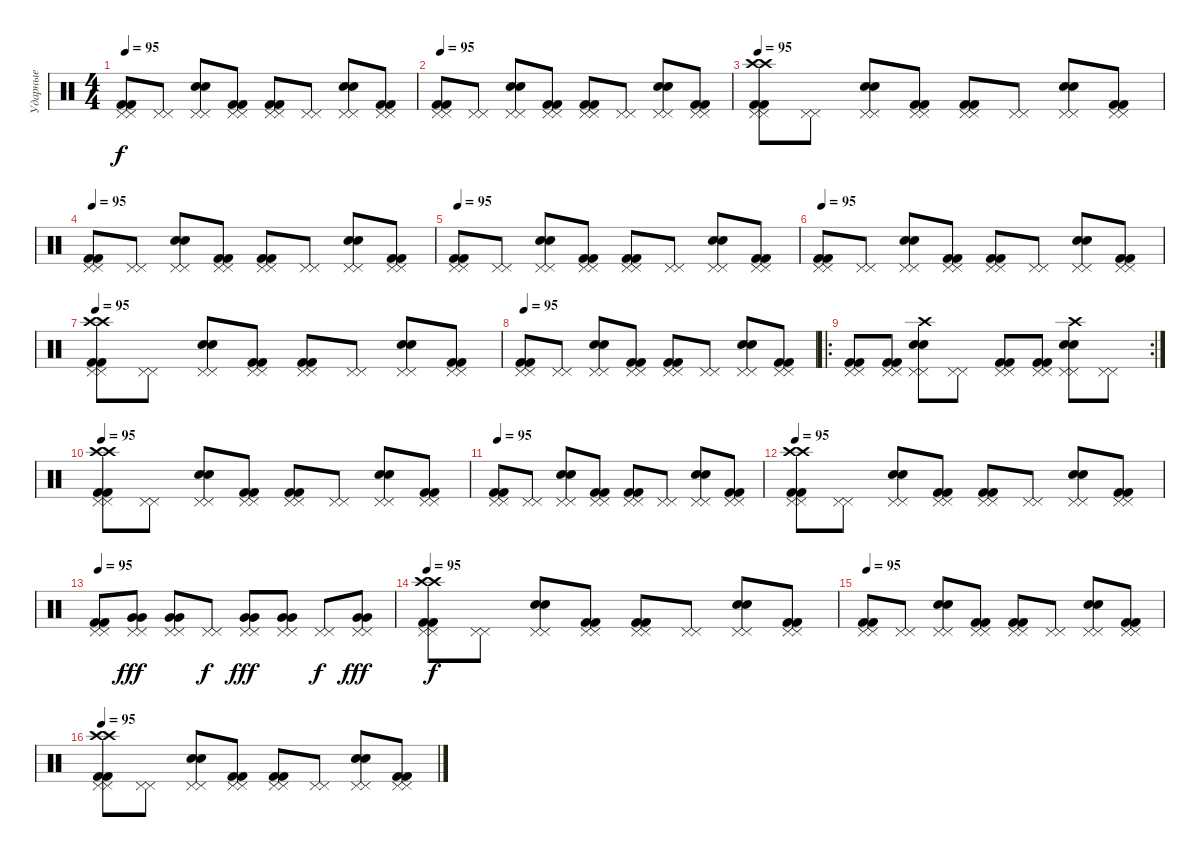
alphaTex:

\track ("Ударные" "Ударные") {instrument percussion}
\staff {score}
\articulation defaults
\ts (4 4)
\tempo 95
\clef neutral
\ks c
("Kick (hit) 2" "Kick (hit) 2" "Pedal Hi-Hat (hit)" "Pedal Hi-Hat (hit)").8{dy f} ("Pedal Hi-Hat (hit)" "Pedal Hi-Hat (hit)").8 ("Pedal Hi-Hat (hit)" "Pedal Hi-Hat (hit)" "Electric Snare (hit)" "Electric Snare (hit)").8 ("Pedal Hi-Hat (hit)" "Pedal Hi-Hat (hit)" "Kick (hit) 2" "Kick (hit) 2").8 ("Pedal Hi-Hat (hit)" "Pedal Hi-Hat (hit)" "Kick (hit) 2" "Kick (hit) 2").8 ("Pedal Hi-Hat (hit)" "Pedal Hi-Hat (hit)").8 ("Pedal Hi-Hat (hit)" "Pedal Hi-Hat (hit)" "Electric Snare (hit)" "Electric Snare (hit)").8 ("Pedal Hi-Hat (hit)" "Pedal Hi-Hat (hit)" "Kick (hit) 2" "Kick (hit) 2").8 |
\tempo 95
("Kick (hit) 2" "Kick (hit) 2" "Pedal Hi-Hat (hit)" "Pedal Hi-Hat (hit)").8 ("Pedal Hi-Hat (hit)" "Pedal Hi-Hat (hit)").8 ("Pedal Hi-Hat (hit)" "Pedal Hi-Hat (hit)" "Electric Snare (hit)" "Electric Snare (hit)").8 ("Pedal Hi-Hat (hit)" "Pedal Hi-Hat (hit)" "Kick (hit) 2" "Kick (hit) 2").8 ("Pedal Hi-Hat (hit)" "Pedal Hi-Hat (hit)" "Kick (hit) 2" "Kick (hit) 2").8 ("Pedal Hi-Hat (hit)" "Pedal Hi-Hat (hit)").8 ("Pedal Hi-Hat (hit)" "Pedal Hi-Hat (hit)" "Electric Snare (hit)" "Electric Snare (hit)").8 ("Pedal Hi-Hat (hit)" "Pedal Hi-Hat (hit)" "Kick (hit) 2" "Kick (hit) 2").8 |
\tempo 95
("Kick (hit) 2" "Kick (hit) 2" "Pedal Hi-Hat (hit)" "Pedal Hi-Hat (hit)" "Crash high (hit)" "Crash high (hit)").8 ("Pedal Hi-Hat (hit)" "Pedal Hi-Hat (hit)").8 ("Pedal Hi-Hat (hit)" "Pedal Hi-Hat (hit)" "Electric Snare (hit)" "Electric Snare (hit)").8 ("Pedal Hi-Hat (hit)" "Pedal Hi-Hat (hit)" "Kick (hit) 2" "Kick (hit) 2").8 ("Pedal Hi-Hat (hit)" "Pedal Hi-Hat (hit)" "Kick (hit) 2" "Kick (hit) 2").8 ("Pedal Hi-Hat (hit)" "Pedal Hi-Hat (hit)").8 ("Pedal Hi-Hat (hit)" "Pedal Hi-Hat (hit)" "Electric Snare (hit)" "Electric Snare (hit)").8 ("Pedal Hi-Hat (hit)" "Pedal Hi-Hat (hit)" "Kick (hit) 2" "Kick (hit) 2").8 |
\tempo 95
("Kick (hit) 2" "Kick (hit) 2" "Pedal Hi-Hat (hit)" "Pedal Hi-Hat (hit)").8 ("Pedal Hi-Hat (hit)" "Pedal Hi-Hat (hit)").8 ("Pedal Hi-Hat (hit)" "Pedal Hi-Hat (hit)" "Electric Snare (hit)" "Electric Snare (hit)").8 ("Pedal Hi-Hat (hit)" "Pedal Hi-Hat (hit)" "Kick (hit) 2" "Kick (hit) 2").8 ("Pedal Hi-Hat (hit)" "Pedal Hi-Hat (hit)" "Kick (hit) 2" "Kick (hit) 2").8 ("Pedal Hi-Hat (hit)" "Pedal Hi-Hat (hit)").8 ("Pedal Hi-Hat (hit)" "Pedal Hi-Hat (hit)" "Electric Snare (hit)" "Electric Snare (hit)").8 ("Pedal Hi-Hat (hit)" "Pedal Hi-Hat (hit)" "Kick (hit) 2" "Kick (hit) 2").8 |
\tempo 95
("Kick (hit) 2" "Kick (hit) 2" "Pedal Hi-Hat (hit)" "Pedal Hi-Hat (hit)").8 ("Pedal Hi-Hat (hit)" "Pedal Hi-Hat (hit)").8 ("Pedal Hi-Hat (hit)" "Pedal Hi-Hat (hit)" "Electric Snare (hit)" "Electric Snare (hit)").8 ("Pedal Hi-Hat (hit)" "Pedal Hi-Hat (hit)" "Kick (hit) 2" "Kick (hit) 2").8 ("Pedal Hi-Hat (hit)" "Pedal Hi-Hat (hit)" "Kick (hit) 2" "Kick (hit) 2").8 ("Pedal Hi-Hat (hit)" "Pedal Hi-Hat (hit)").8 ("Pedal Hi-Hat (hit)" "Pedal Hi-Hat (hit)" "Electric Snare (hit)" "Electric Snare (hit)").8 ("Pedal Hi-Hat (hit)" "Pedal Hi-Hat (hit)" "Kick (hit) 2" "Kick (hit) 2").8 |
\tempo 95
("Kick (hit) 2" "Kick (hit) 2" "Pedal Hi-Hat (hit)" "Pedal Hi-Hat (hit)").8 ("Pedal Hi-Hat (hit)" "Pedal Hi-Hat (hit)").8 ("Pedal Hi-Hat (hit)" "Pedal Hi-Hat (hit)" "Electric Snare (hit)" "Electric Snare (hit)").8 ("Pedal Hi-Hat (hit)" "Pedal Hi-Hat (hit)" "Kick (hit) 2" "Kick (hit) 2").8 ("Pedal Hi-Hat (hit)" "Pedal Hi-Hat (hit)" "Kick (hit) 2" "Kick (hit) 2").8 ("Pedal Hi-Hat (hit)" "Pedal Hi-Hat (hit)").8 ("Pedal Hi-Hat (hit)" "Pedal Hi-Hat (hit)" "Electric Snare (hit)" "Electric Snare (hit)").8 ("Pedal Hi-Hat (hit)" "Pedal Hi-Hat (hit)" "Kick (hit) 2" "Kick (hit) 2").8 |
\tempo 95
("Kick (hit) 2" "Kick (hit) 2" "Pedal Hi-Hat (hit)" "Pedal Hi-Hat (hit)" "Crash high (hit)" "Crash high (hit)").8 ("Pedal Hi-Hat (hit)" "Pedal Hi-Hat (hit)").8 ("Pedal Hi-Hat (hit)" "Pedal Hi-Hat (hit)" "Electric Snare (hit)" "Electric Snare (hit)").8 ("Pedal Hi-Hat (hit)" "Pedal Hi-Hat (hit)" "Kick (hit) 2" "Kick (hit) 2").8 ("Pedal Hi-Hat (hit)" "Pedal Hi-Hat (hit)" "Kick (hit) 2" "Kick (hit) 2").8 ("Pedal Hi-Hat (hit)" "Pedal Hi-Hat (hit)").8 ("Pedal Hi-Hat (hit)" "Pedal Hi-Hat (hit)" "Electric Snare (hit)" "Electric Snare (hit)").8 ("Pedal Hi-Hat (hit)" "Pedal Hi-Hat (hit)" "Kick (hit) 2" "Kick (hit) 2").8 |
\tempo 95
("Kick (hit) 2" "Kick (hit) 2" "Pedal Hi-Hat (hit)" "Pedal Hi-Hat (hit)").8 ("Pedal Hi-Hat (hit)" "Pedal Hi-Hat (hit)").8 ("Pedal Hi-Hat (hit)" "Pedal Hi-Hat (hit)" "Electric Snare (hit)" "Electric Snare (hit)").8 ("Pedal Hi-Hat (hit)" "Pedal Hi-Hat (hit)" "Kick (hit) 2" "Kick (hit) 2").8 ("Pedal Hi-Hat (hit)" "Pedal Hi-Hat (hit)" "Kick (hit) 2" "Kick (hit) 2").8 ("Pedal Hi-Hat (hit)" "Pedal Hi-Hat (hit)").8 ("Pedal Hi-Hat (hit)" "Pedal Hi-Hat (hit)" "Electric Snare (hit)" "Electric Snare (hit)").8 ("Pedal Hi-Hat (hit)" "Pedal Hi-Hat (hit)" "Kick (hit) 2" "Kick (hit) 2").8 |
\ro
\rc 2
("Kick (hit) 2" "Kick (hit) 2" "Pedal Hi-Hat (hit)" "Pedal Hi-Hat (hit)").8 ("Kick (hit) 2" "Kick (hit) 2" "Pedal Hi-Hat (hit)" "Pedal Hi-Hat (hit)").8 ("Electric Snare (hit)" "Electric Snare (hit)" "Crash high (hit)" "Pedal Hi-Hat (hit)" "Pedal Hi-Hat (hit)").8 ("Pedal Hi-Hat (hit)" "Pedal Hi-Hat (hit)").8 ("Kick (hit) 2" "Kick (hit) 2" "Pedal Hi-Hat (hit)" "Pedal Hi-Hat (hit)").8 ("Kick (hit) 2" "Kick (hit) 2" "Pedal Hi-Hat (hit)" "Pedal Hi-Hat (hit)").8 ("Electric Snare (hit)" "Electric Snare (hit)" "Crash high (hit)" "Pedal Hi-Hat (hit)" "Pedal Hi-Hat (hit)").8 ("Pedal Hi-Hat (hit)" "Pedal Hi-Hat (hit)").8 |
\tempo 95
("Kick (hit) 2" "Kick (hit) 2" "Pedal Hi-Hat (hit)" "Pedal Hi-Hat (hit)" "Crash high (hit)" "Crash high (hit)").8 ("Pedal Hi-Hat (hit)" "Pedal Hi-Hat (hit)").8 ("Pedal Hi-Hat (hit)" "Pedal Hi-Hat (hit)" "Electric Snare (hit)" "Electric Snare (hit)").8 ("Pedal Hi-Hat (hit)" "Pedal Hi-Hat (hit)" "Kick (hit) 2" "Kick (hit) 2").8 ("Pedal Hi-Hat (hit)" "Pedal Hi-Hat (hit)" "Kick (hit) 2" "Kick (hit) 2").8 ("Pedal Hi-Hat (hit)" "Pedal Hi-Hat (hit)").8 ("Pedal Hi-Hat (hit)" "Pedal Hi-Hat (hit)" "Electric Snare (hit)" "Electric Snare (hit)").8 ("Pedal Hi-Hat (hit)" "Pedal Hi-Hat (hit)" "Kick (hit) 2" "Kick (hit) 2").8 |
\tempo 95
("Kick (hit) 2" "Kick (hit) 2" "Pedal Hi-Hat (hit)" "Pedal Hi-Hat (hit)").8 ("Pedal Hi-Hat (hit)" "Pedal Hi-Hat (hit)").8 ("Pedal Hi-Hat (hit)" "Pedal Hi-Hat (hit)" "Electric Snare (hit)" "Electric Snare (hit)").8 ("Pedal Hi-Hat (hit)" "Pedal Hi-Hat (hit)" "Kick (hit) 2" "Kick (hit) 2").8 ("Pedal Hi-Hat (hit)" "Pedal Hi-Hat (hit)" "Kick (hit) 2" "Kick (hit) 2").8 ("Pedal Hi-Hat (hit)" "Pedal Hi-Hat (hit)").8 ("Pedal Hi-Hat (hit)" "Pedal Hi-Hat (hit)" "Electric Snare (hit)" "Electric Snare (hit)").8 ("Pedal Hi-Hat (hit)" "Pedal Hi-Hat (hit)" "Kick (hit) 2" "Kick (hit) 2").8 |
\tempo 95
("Kick (hit) 2" "Kick (hit) 2" "Pedal Hi-Hat (hit)" "Pedal Hi-Hat (hit)" "Crash high (hit)" "Crash high (hit)").8 ("Pedal Hi-Hat (hit)" "Pedal Hi-Hat (hit)").8 ("Pedal Hi-Hat (hit)" "Pedal Hi-Hat (hit)" "Electric Snare (hit)" "Electric Snare (hit)").8 ("Pedal Hi-Hat (hit)" "Pedal Hi-Hat (hit)" "Kick (hit) 2" "Kick (hit) 2").8 ("Pedal Hi-Hat (hit)" "Pedal Hi-Hat (hit)" "Kick (hit) 2" "Kick (hit) 2").8 ("Pedal Hi-Hat (hit)" "Pedal Hi-Hat (hit)").8 ("Pedal Hi-Hat (hit)" "Pedal Hi-Hat (hit)" "Electric Snare (hit)" "Electric Snare (hit)").8 ("Pedal Hi-Hat (hit)" "Pedal Hi-Hat (hit)" "Kick (hit) 2" "Kick (hit) 2").8 |
\tempo 95
("Kick (hit) 2" "Kick (hit) 2" "Pedal Hi-Hat (hit)" "Pedal Hi-Hat (hit)").8 ("Pedal Hi-Hat (hit)" "Pedal Hi-Hat (hit)" "Very Low Tom (hit)" "Very Low Tom (hit)").8{dy fff} ("Pedal Hi-Hat (hit)" "Pedal Hi-Hat (hit)" "Very Low Tom (hit)" "Very Low Tom (hit)").8 ("Pedal Hi-Hat (hit)" "Pedal Hi-Hat (hit)").8{dy f} ("Pedal Hi-Hat (hit)" "Pedal Hi-Hat (hit)" "Very Low Tom (hit)" "Very Low Tom (hit)").8{dy fff} ("Pedal Hi-Hat (hit)" "Pedal Hi-Hat (hit)" "Very Low Tom (hit)" "Very Low Tom (hit)").8 ("Pedal Hi-Hat (hit)" "Pedal Hi-Hat (hit)").8{dy f} ("Pedal Hi-Hat (hit)" "Pedal Hi-Hat (hit)" "Very Low Tom (hit)" "Very Low Tom (hit)").8{dy fff} |
\tempo 95
("Kick (hit) 2" "Kick (hit) 2" "Pedal Hi-Hat (hit)" "Pedal Hi-Hat (hit)" "Crash high (hit)" "Crash high (hit)").8{dy f} ("Pedal Hi-Hat (hit)" "Pedal Hi-Hat (hit)").8 ("Pedal Hi-Hat (hit)" "Pedal Hi-Hat (hit)" "Electric Snare (hit)" "Electric Snare (hit)").8 ("Pedal Hi-Hat (hit)" "Pedal Hi-Hat (hit)" "Kick (hit) 2" "Kick (hit) 2").8 ("Pedal Hi-Hat (hit)" "Pedal Hi-Hat (hit)" "Kick (hit) 2" "Kick (hit) 2").8 ("Pedal Hi-Hat (hit)" "Pedal Hi-Hat (hit)").8 ("Pedal Hi-Hat (hit)" "Pedal Hi-Hat (hit)" "Electric Snare (hit)" "Electric Snare (hit)").8 ("Pedal Hi-Hat (hit)" "Pedal Hi-Hat (hit)" "Kick (hit) 2" "Kick (hit) 2").8 |
\tempo 95
("Kick (hit) 2" "Kick (hit) 2" "Pedal Hi-Hat (hit)" "Pedal Hi-Hat (hit)").8 ("Pedal Hi-Hat (hit)" "Pedal Hi-Hat (hit)").8 ("Pedal Hi-Hat (hit)" "Pedal Hi-Hat (hit)" "Electric Snare (hit)" "Electric Snare (hit)").8 ("Pedal Hi-Hat (hit)" "Pedal Hi-Hat (hit)" "Kick (hit) 2" "Kick (hit) 2").8 ("Pedal Hi-Hat (hit)" "Pedal Hi-Hat (hit)" "Kick (hit) 2" "Kick (hit) 2").8 ("Pedal Hi-Hat (hit)" "Pedal Hi-Hat (hit)").8 ("Pedal Hi-Hat (hit)" "Pedal Hi-Hat (hit)" "Electric Snare (hit)" "Electric Snare (hit)").8 ("Pedal Hi-Hat (hit)" "Pedal Hi-Hat (hit)" "Kick (hit) 2" "Kick (hit) 2").8 |
\tempo 95
("Kick (hit) 2" "Kick (hit) 2" "Pedal Hi-Hat (hit)" "Pedal Hi-Hat (hit)" "Crash high (hit)" "Crash high (hit)").8 ("Pedal Hi-Hat (hit)" "Pedal Hi-Hat (hit)").8 ("Pedal Hi-Hat (hit)" "Pedal Hi-Hat (hit)" "Electric Snare (hit)" "Electric Snare (hit)").8 ("Pedal Hi-Hat (hit)" "Pedal Hi-Hat (hit)" "Kick (hit) 2" "Kick (hit) 2").8 ("Pedal Hi-Hat (hit)" "Pedal Hi-Hat (hit)" "Kick (hit) 2" "Kick (hit) 2").8 ("Pedal Hi-Hat (hit)" "Pedal Hi-Hat (hit)").8 ("Pedal Hi-Hat (hit)" "Pedal Hi-Hat (hit)" "Electric Snare (hit)" "Electric Snare (hit)").8 ("Pedal Hi-Hat (hit)" "Pedal Hi-Hat (hit)" "Kick (hit) 2" "Kick (hit) 2").8
